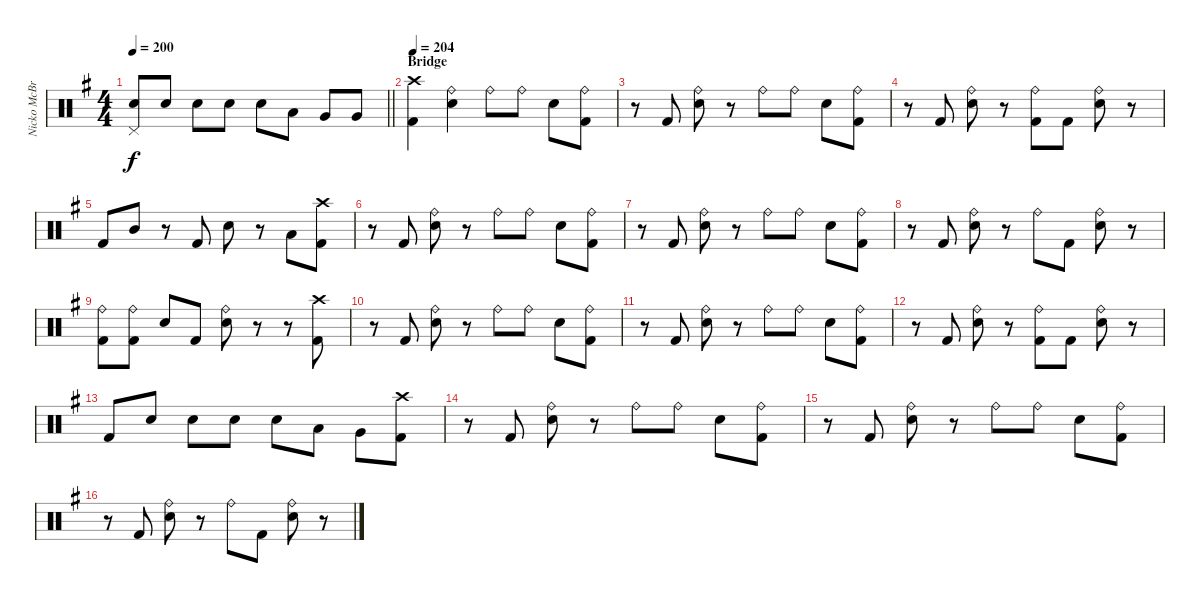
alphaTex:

\track ("Nicko McBrain (Drums)" "Nicko McBr") {instrument percussion}
\staff {score}
\articulation defaults
\ts (4 4)
\tempo 200
\clef neutral
\barLineRight lightlight
\ks eminor
("Pedal Hi-Hat (hit)" "Snare (hit) 2").8{dy f} "Snare (hit) 2".8 "Snare (hit) 2".8 "Snare (hit) 2".8 "Snare (hit) 2".8 "Low Tom (hit)".8 "Very Low Tom (hit)".8 "Very Low Tom (hit)".8 |
\section ("" "Bridge")
\tempo 204
("Crash high (hit)" "Kick (hit) 2").4 ("Ride (bell)" "Snare (hit) 2").4 "Ride (bell)".8 "Ride (bell)".8 "Snare (hit) 2".8 ("Ride (bell)" "Kick (hit) 2").8 |
r.8 "Kick (hit) 2".8 ("Ride (bell)" "Snare (hit) 2").8 r.8 "Ride (bell)".8 "Ride (bell)".8 "Snare (hit) 2".8 ("Ride (bell)" "Kick (hit) 2").8 |
r.8 "Kick (hit) 2".8 ("Ride (bell)" "Snare (hit) 2").8 r.8 ("Ride (bell)" "Kick (hit) 2").8 "Kick (hit) 2".8 ("Ride (bell)" "Snare (hit) 2").8 r.8 |
"Kick (hit) 2".8 "Mid Tom (hit)".8 r.8 "Kick (hit) 2".8 "Snare (hit) 2".8 r.8 "Low Tom (hit)".8 ("Crash high (hit)" "Kick (hit) 2").8 |
r.8 "Kick (hit) 2".8 ("Ride (bell)" "Snare (hit) 2").8 r.8 "Ride (bell)".8 "Ride (bell)".8 "Snare (hit) 2".8 ("Ride (bell)" "Kick (hit) 2").8 |
r.8 "Kick (hit) 2".8 ("Ride (bell)" "Snare (hit) 2").8 r.8 "Ride (bell)".8 "Ride (bell)".8 "Snare (hit) 2".8 ("Ride (bell)" "Kick (hit) 2").8 |
r.8 "Kick (hit) 2".8 ("Ride (bell)" "Snare (hit) 2").8 r.8 "Ride (bell)".8 "Kick (hit) 2".8 ("Ride (bell)" "Snare (hit) 2").8 r.8 |
("Ride (bell)" "Kick (hit) 2").8 ("Ride (bell)" "Kick (hit) 2").8 "Snare (hit) 2".8 "Kick (hit) 2".8 ("Ride (bell)" "Snare (hit) 2").8 r.8 r.8 ("Crash high (hit)" "Kick (hit) 2").8 |
r.8 "Kick (hit) 2".8 ("Ride (bell)" "Snare (hit) 2").8 r.8 "Ride (bell)".8 "Ride (bell)".8 "Snare (hit) 2".8 ("Ride (bell)" "Kick (hit) 2").8 |
r.8 "Kick (hit) 2".8 ("Ride (bell)" "Snare (hit) 2").8 r.8 "Ride (bell)".8 "Ride (bell)".8 "Snare (hit) 2".8 ("Ride (bell)" "Kick (hit) 2").8 |
r.8 "Kick (hit) 2".8 ("Ride (bell)" "Snare (hit) 2").8 r.8 ("Ride (bell)" "Kick (hit) 2").8 "Kick (hit) 2".8 ("Ride (bell)" "Snare (hit) 2").8 r.8 |
"Kick (hit) 2".8 "Snare (hit) 2".8 "Snare (hit) 2".8 "Snare (hit) 2".8 "Snare (hit) 2".8 "Low Tom (hit)".8 "Very Low Tom (hit)".8 ("Crash high (hit)" "Kick (hit) 2").8 |
r.8 "Kick (hit) 2".8 ("Ride (bell)" "Snare (hit) 2").8 r.8 "Ride (bell)".8 "Ride (bell)".8 "Snare (hit) 2".8 ("Ride (bell)" "Kick (hit) 2").8 |
r.8 "Kick (hit) 2".8 ("Ride (bell)" "Snare (hit) 2").8 r.8 "Ride (bell)".8 "Ride (bell)".8 "Snare (hit) 2".8 ("Ride (bell)" "Kick (hit) 2").8 |
r.8 "Kick (hit) 2".8 ("Ride (bell)" "Snare (hit) 2").8 r.8 "Ride (bell)".8 "Kick (hit) 2".8 ("Ride (bell)" "Snare (hit) 2").8 r.8
